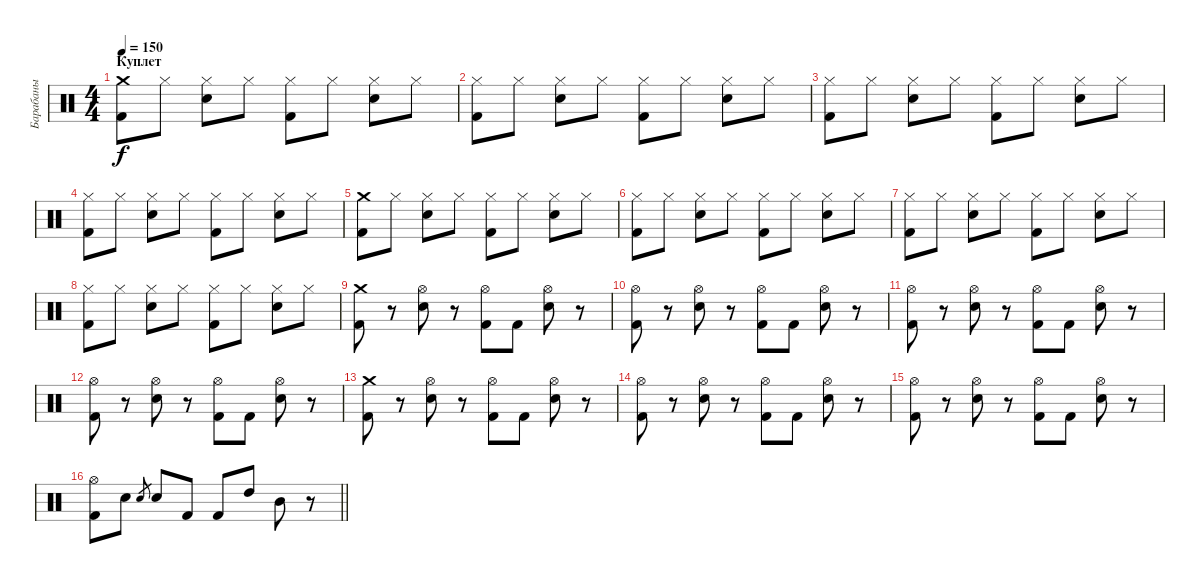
\track ("Барабаны" "Барабаны") {instrument percussion}
\staff {score}
\articulation defaults
\ts (4 4)
\section ("" "Куплет ")
\tempo 150
\clef neutral
\ks c
("Crash medium (hit)" "Kick (hit) 2").8{dy f} "Hi-Hat (closed)".8 ("Hi-Hat (closed)" "Electric Snare (hit)").8 "Hi-Hat (closed)".8 ("Hi-Hat (closed)" "Kick (hit) 2").8 "Hi-Hat (closed)".8 ("Hi-Hat (closed)" "Electric Snare (hit)").8 "Hi-Hat (closed)".8 |
("Hi-Hat (closed)" "Kick (hit) 2").8 "Hi-Hat (closed)".8 ("Hi-Hat (closed)" "Electric Snare (hit)").8 "Hi-Hat (closed)".8 ("Hi-Hat (closed)" "Kick (hit) 2").8 "Hi-Hat (closed)".8 ("Hi-Hat (closed)" "Electric Snare (hit)").8 "Hi-Hat (closed)".8 |
("Hi-Hat (closed)" "Kick (hit) 2").8 "Hi-Hat (closed)".8 ("Hi-Hat (closed)" "Electric Snare (hit)").8 "Hi-Hat (closed)".8 ("Hi-Hat (closed)" "Kick (hit) 2").8 "Hi-Hat (closed)".8 ("Hi-Hat (closed)" "Electric Snare (hit)").8 "Hi-Hat (closed)".8 |
("Hi-Hat (closed)" "Kick (hit) 2").8 "Hi-Hat (closed)".8 ("Hi-Hat (closed)" "Electric Snare (hit)").8 "Hi-Hat (closed)".8 ("Hi-Hat (closed)" "Kick (hit) 2").8 "Hi-Hat (closed)".8 ("Hi-Hat (closed)" "Electric Snare (hit)").8 "Hi-Hat (closed)".8 |
("Crash medium (hit)" "Kick (hit) 2").8 "Hi-Hat (closed)".8 ("Hi-Hat (closed)" "Electric Snare (hit)").8 "Hi-Hat (closed)".8 ("Hi-Hat (closed)" "Kick (hit) 2").8 "Hi-Hat (closed)".8 ("Hi-Hat (closed)" "Electric Snare (hit)").8 "Hi-Hat (closed)".8 |
("Hi-Hat (closed)" "Kick (hit) 2").8 "Hi-Hat (closed)".8 ("Hi-Hat (closed)" "Electric Snare (hit)").8 "Hi-Hat (closed)".8 ("Hi-Hat (closed)" "Kick (hit) 2").8 "Hi-Hat (closed)".8 ("Hi-Hat (closed)" "Electric Snare (hit)").8 "Hi-Hat (closed)".8 |
("Hi-Hat (closed)" "Kick (hit) 2").8 "Hi-Hat (closed)".8 ("Hi-Hat (closed)" "Electric Snare (hit)").8 "Hi-Hat (closed)".8 ("Hi-Hat (closed)" "Kick (hit) 2").8 "Hi-Hat (closed)".8 ("Hi-Hat (closed)" "Electric Snare (hit)").8 "Hi-Hat (closed)".8 |
("Hi-Hat (closed)" "Kick (hit) 2").8 "Hi-Hat (closed)".8 ("Hi-Hat (closed)" "Electric Snare (hit)").8 "Hi-Hat (closed)".8 ("Hi-Hat (closed)" "Kick (hit) 2").8 "Hi-Hat (closed)".8 ("Hi-Hat (closed)" "Electric Snare (hit)").8 "Hi-Hat (closed)".8 |
("Crash medium (hit)" "Kick (hit) 2").8 r.8 ("Hi-Hat (open)" "Electric Snare (hit)").8 r.8 ("Hi-Hat (open)" "Kick (hit) 2").8 "Kick (hit) 2".8 ("Hi-Hat (open)" "Electric Snare (hit)").8 r.8 |
("Hi-Hat (open)" "Kick (hit) 2").8 r.8 ("Hi-Hat (open)" "Electric Snare (hit)").8 r.8 ("Hi-Hat (open)" "Kick (hit) 2").8 "Kick (hit) 2".8 ("Hi-Hat (open)" "Electric Snare (hit)").8 r.8 |
("Hi-Hat (open)" "Kick (hit) 2").8 r.8 ("Hi-Hat (open)" "Electric Snare (hit)").8 r.8 ("Hi-Hat (open)" "Kick (hit) 2").8 "Kick (hit) 2".8 ("Hi-Hat (open)" "Electric Snare (hit)").8 r.8 |
("Hi-Hat (open)" "Kick (hit) 2").8 r.8 ("Hi-Hat (open)" "Electric Snare (hit)").8 r.8 ("Hi-Hat (open)" "Kick (hit) 2").8 "Kick (hit) 2".8 ("Hi-Hat (open)" "Electric Snare (hit)").8 r.8 |
("Crash medium (hit)" "Kick (hit) 2").8 r.8 ("Hi-Hat (open)" "Electric Snare (hit)").8 r.8 ("Hi-Hat (open)" "Kick (hit) 2").8 "Kick (hit) 2".8 ("Hi-Hat (open)" "Electric Snare (hit)").8 r.8 |
("Hi-Hat (open)" "Kick (hit) 2").8 r.8 ("Hi-Hat (open)" "Electric Snare (hit)").8 r.8 ("Hi-Hat (open)" "Kick (hit) 2").8 "Kick (hit) 2".8 ("Hi-Hat (open)" "Electric Snare (hit)").8 r.8 |
("Hi-Hat (open)" "Kick (hit) 2").8 r.8 ("Hi-Hat (open)" "Electric Snare (hit)").8 r.8 ("Hi-Hat (open)" "Kick (hit) 2").8 "Kick (hit) 2".8 ("Hi-Hat (open)" "Electric Snare (hit)").8 r.8 |
\barLineRight lightlight
("Hi-Hat (open)" "Kick (hit) 2").8 "Electric Snare (hit)".8 "Electric Snare (hit)".8{gr} "Electric Snare (hit)".8 "Kick (hit) 2".8 "Kick (hit) 2".8 "High Tom (hit)".8 "Mid Tom (hit)".8 r.8
